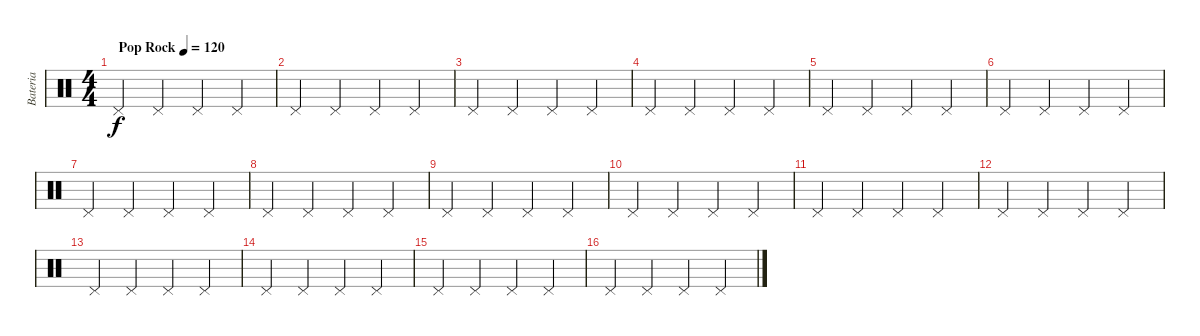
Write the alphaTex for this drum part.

\track ("Bateria" "Bateria") {instrument percussion}
\staff {score}
\articulation defaults
\ts (4 4)
\tempo (120 "Pop Rock")
\clef neutral
\ks c "Pedal Hi-Hat (hit)".4{dy f} "Pedal Hi-Hat (hit)".4 "Pedal Hi-Hat (hit)".4 "Pedal Hi-Hat (hit)".4
|
"Pedal Hi-Hat (hit)".4 "Pedal Hi-Hat (hit)".4 "Pedal Hi-Hat (hit)".4 "Pedal Hi-Hat (hit)".4 |
"Pedal Hi-Hat (hit)".4 "Pedal Hi-Hat (hit)".4 "Pedal Hi-Hat (hit)".4 "Pedal Hi-Hat (hit)".4 |
"Pedal Hi-Hat (hit)".4 "Pedal Hi-Hat (hit)".4 "Pedal Hi-Hat (hit)".4 "Pedal Hi-Hat (hit)".4 |
"Pedal Hi-Hat (hit)".4 "Pedal Hi-Hat (hit)".4 "Pedal Hi-Hat (hit)".4 "Pedal Hi-Hat (hit)".4 |
"Pedal Hi-Hat (hit)".4 "Pedal Hi-Hat (hit)".4 "Pedal Hi-Hat (hit)".4 "Pedal Hi-Hat (hit)".4 |
"Pedal Hi-Hat (hit)".4 "Pedal Hi-Hat (hit)".4 "Pedal Hi-Hat (hit)".4 "Pedal Hi-Hat (hit)".4 |
"Pedal Hi-Hat (hit)".4 "Pedal Hi-Hat (hit)".4 "Pedal Hi-Hat (hit)".4 "Pedal Hi-Hat (hit)".4 |
"Pedal Hi-Hat (hit)".4 "Pedal Hi-Hat (hit)".4 "Pedal Hi-Hat (hit)".4 "Pedal Hi-Hat (hit)".4 |
"Pedal Hi-Hat (hit)".4 "Pedal Hi-Hat (hit)".4 "Pedal Hi-Hat (hit)".4 "Pedal Hi-Hat (hit)".4 |
"Pedal Hi-Hat (hit)".4 "Pedal Hi-Hat (hit)".4 "Pedal Hi-Hat (hit)".4 "Pedal Hi-Hat (hit)".4 |
"Pedal Hi-Hat (hit)".4 "Pedal Hi-Hat (hit)".4 "Pedal Hi-Hat (hit)".4 "Pedal Hi-Hat (hit)".4 |
"Pedal Hi-Hat (hit)".4 "Pedal Hi-Hat (hit)".4 "Pedal Hi-Hat (hit)".4 "Pedal Hi-Hat (hit)".4 |
"Pedal Hi-Hat (hit)".4 "Pedal Hi-Hat (hit)".4 "Pedal Hi-Hat (hit)".4 "Pedal Hi-Hat (hit)".4 |
"Pedal Hi-Hat (hit)".4 "Pedal Hi-Hat (hit)".4 "Pedal Hi-Hat (hit)".4 "Pedal Hi-Hat (hit)".4 |
"Pedal Hi-Hat (hit)".4 "Pedal Hi-Hat (hit)".4 "Pedal Hi-Hat (hit)".4 "Pedal Hi-Hat (hit)".4
